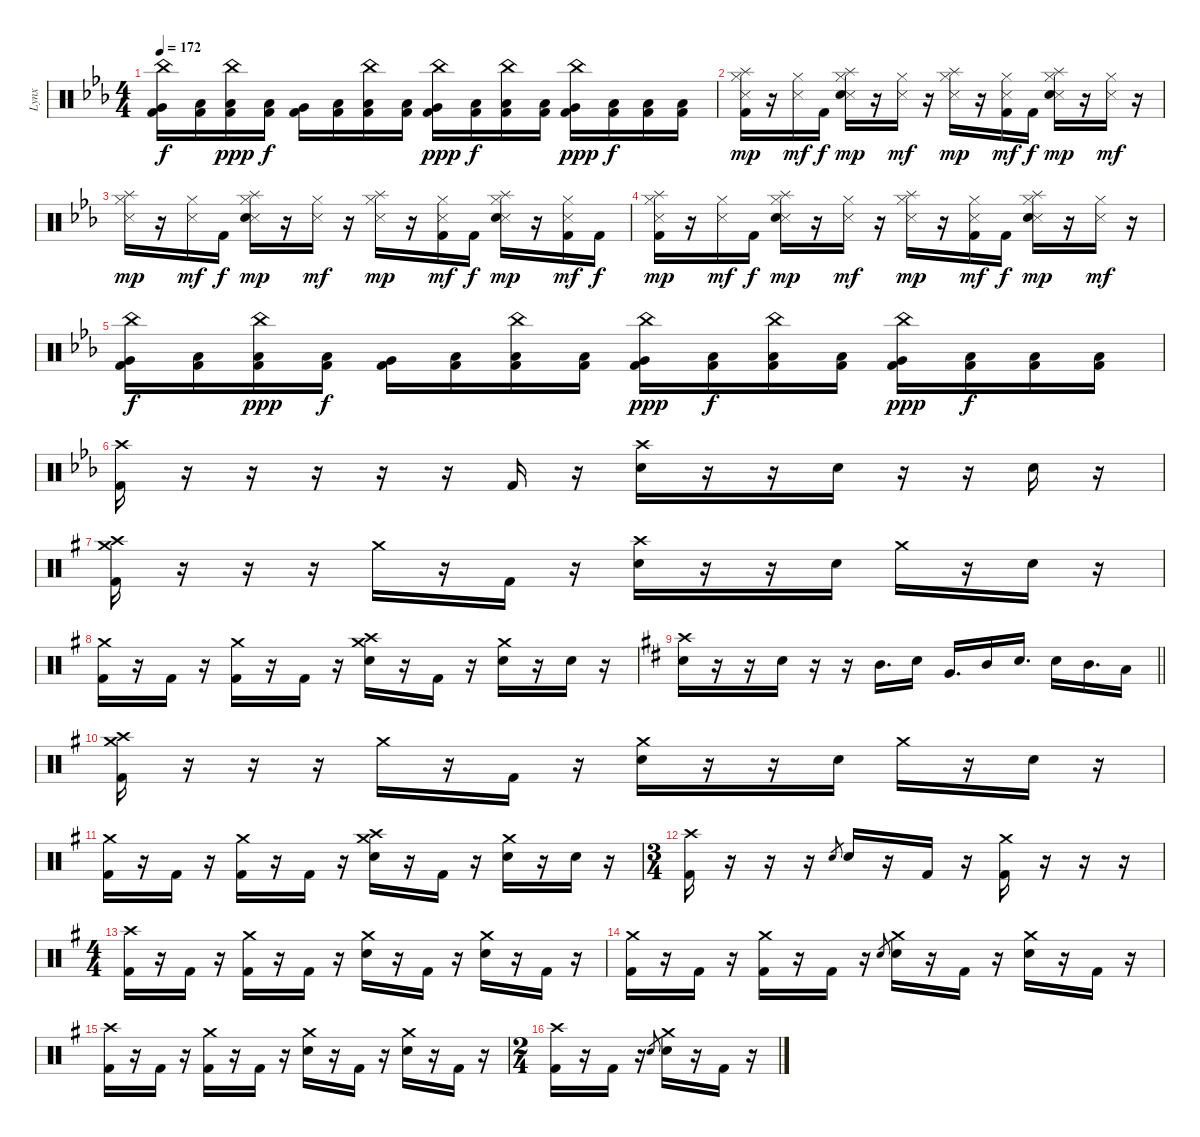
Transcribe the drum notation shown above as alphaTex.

\track ("Lynx" "Lynx") {instrument percussion}
\staff {score}
\articulation defaults
\ts (4 4)
\tempo 172
\clef neutral
\ks eb
("China (hit)" "Very Low Tom (hit)" "Kick (hit) 2").16{dy f} ("Low Floor Tom (hit)" "Kick (hit) 2").16 ("China (hit)" "Low Floor Tom (hit)" "Kick (hit) 2").16{dy ppp} ("Low Floor Tom (hit)" "Kick (hit) 2").16{dy f} ("Very Low Tom (hit)" "Kick (hit) 2").16 ("Low Floor Tom (hit)" "Kick (hit) 2").16 ("China (hit)" "Low Floor Tom (hit)" "Kick (hit) 2").16 ("Low Floor Tom (hit)" "Kick (hit) 2").16 ("China (hit)" "Very Low Tom (hit)" "Kick (hit) 2").16{dy ppp} ("Low Floor Tom (hit)" "Kick (hit) 2").16{dy f} ("China (hit)" "Low Floor Tom (hit)" "Kick (hit) 2").16 ("Low Floor Tom (hit)" "Kick (hit) 2").16 ("China (hit)" "Very Low Tom (hit)" "Kick (hit) 2").16{dy ppp} ("Low Floor Tom (hit)" "Kick (hit) 2").16{dy f} ("Low Floor Tom (hit)" "Kick (hit) 2").16 ("Low Floor Tom (hit)" "Kick (hit) 2").16 |
("Hi-Hat (closed)" "Snare (side stick) 3" "Splash (hit)" "Kick (hit) 2").16{dy mp} r.16 ("Hi-Hat (closed)" "Snare (side stick) 3").16{dy mf} "Kick (hit) 2".16{dy f} ("Hi-Hat (closed)" "Snare (side stick) 3" "Splash (hit)" "Electric Snare (hit)").16{dy mp} r.16 ("Hi-Hat (closed)" "Snare (side stick) 3").16{dy mf} r.16 ("Hi-Hat (closed)" "Snare (side stick) 3" "Splash (hit)").16{dy mp} r.16 ("Hi-Hat (closed)" "Snare (side stick) 3" "Kick (hit) 2").16{dy mf} "Kick (hit) 2".16{dy f} ("Hi-Hat (closed)" "Snare (side stick) 3" "Splash (hit)" "Electric Snare (hit)").16{dy mp} r.16 ("Hi-Hat (closed)" "Snare (side stick) 3").16{dy mf} r.16 |
("Hi-Hat (closed)" "Snare (side stick) 3" "Splash (hit)").16{dy mp} r.16 ("Hi-Hat (closed)" "Snare (side stick) 3").16{dy mf} "Kick (hit) 2".16{dy f} ("Hi-Hat (closed)" "Snare (side stick) 3" "Splash (hit)" "Electric Snare (hit)").16{dy mp} r.16 ("Hi-Hat (closed)" "Snare (side stick) 3").16{dy mf} r.16 ("Hi-Hat (closed)" "Snare (side stick) 3" "Splash (hit)").16{dy mp} r.16 ("Hi-Hat (closed)" "Snare (side stick) 3" "Kick (hit) 2").16{dy mf} "Kick (hit) 2".16{dy f} ("Hi-Hat (closed)" "Snare (side stick) 3" "Splash (hit)" "Electric Snare (hit)").16{dy mp} r.16 ("Hi-Hat (closed)" "Snare (side stick) 3" "Kick (hit) 2").16{dy mf} "Kick (hit) 2".16{dy f} |
("Hi-Hat (closed)" "Snare (side stick) 3" "Splash (hit)" "Kick (hit) 2").16{dy mp} r.16 ("Hi-Hat (closed)" "Snare (side stick) 3").16{dy mf} "Kick (hit) 2".16{dy f} ("Hi-Hat (closed)" "Snare (side stick) 3" "Splash (hit)" "Electric Snare (hit)").16{dy mp} r.16 ("Hi-Hat (closed)" "Snare (side stick) 3").16{dy mf} r.16 ("Hi-Hat (closed)" "Snare (side stick) 3" "Splash (hit)").16{dy mp} r.16 ("Hi-Hat (closed)" "Snare (side stick) 3" "Kick (hit) 2").16{dy mf} "Kick (hit) 2".16{dy f} ("Hi-Hat (closed)" "Snare (side stick) 3" "Splash (hit)" "Electric Snare (hit)").16{dy mp} r.16 ("Hi-Hat (closed)" "Snare (side stick) 3").16{dy mf} r.16 |
("China (hit)" "Very Low Tom (hit)" "Kick (hit) 2").16{dy f} ("Low Floor Tom (hit)" "Kick (hit) 2").16 ("China (hit)" "Low Floor Tom (hit)" "Kick (hit) 2").16{dy ppp} ("Low Floor Tom (hit)" "Kick (hit) 2").16{dy f} ("Very Low Tom (hit)" "Kick (hit) 2").16 ("Low Floor Tom (hit)" "Kick (hit) 2").16 ("China (hit)" "Low Floor Tom (hit)" "Kick (hit) 2").16 ("Low Floor Tom (hit)" "Kick (hit) 2").16 ("China (hit)" "Very Low Tom (hit)" "Kick (hit) 2").16{dy ppp} ("Low Floor Tom (hit)" "Kick (hit) 2").16{dy f} ("China (hit)" "Low Floor Tom (hit)" "Kick (hit) 2").16 ("Low Floor Tom (hit)" "Kick (hit) 2").16 ("China (hit)" "Very Low Tom (hit)" "Kick (hit) 2").16{dy ppp} ("Low Floor Tom (hit)" "Kick (hit) 2").16{dy f} ("Low Floor Tom (hit)" "Kick (hit) 2").16 ("Low Floor Tom (hit)" "Kick (hit) 2").16 |
("Crash high (hit)" "Kick (hit) 2").16 r.16 r.16 r.16 r.16 r.16 "Kick (hit) 2".16 r.16 ("Crash high (hit)" "Electric Snare (hit)").16 r.16 r.16 "Electric Snare (hit)".16 r.16 r.16 "Electric Snare (hit)".16 r.16 |
\ks g
("Crash high (hit)" "Crash medium (hit)" "Kick (hit) 2").16 r.16 r.16 r.16 "Crash medium (hit)".16 r.16 "Kick (hit) 2".16 r.16 ("Crash high (hit)" "Electric Snare (hit)").16 r.16 r.16 "Electric Snare (hit)".16 "Crash medium (hit)".16 r.16 "Electric Snare (hit)".16 r.16 |
("Crash medium (hit)" "Kick (hit) 2").16 r.16 "Kick (hit) 2".16 r.16 ("Crash medium (hit)" "Kick (hit) 2").16 r.16 "Kick (hit) 2".16 r.16 ("Crash medium (hit)" "Crash high (hit)" "Electric Snare (hit)").16 r.16 "Kick (hit) 2".16 r.16 ("Crash medium (hit)" "Electric Snare (hit)").16 r.16 "Electric Snare (hit)".16 r.16 |
\barLineRight lightlight
\ks d
("Crash high (hit)" "Electric Snare (hit)").16 r.16 r.16 "Electric Snare (hit)".16 r.16 r.16 "Mid Tom (hit)".16{d} "Electric Snare (hit)".16 "Very Low Tom (hit)".16{d} "Mid Tom (hit)".16 "Electric Snare (hit)".16{d} "Electric Snare (hit)".16 "Mid Tom (hit)".16{d} "Low Tom (hit)".16 |
\section ("" "")
\ks g
("Crash high (hit)" "Crash medium (hit)" "Kick (hit) 2").16 r.16 r.16 r.16 "Crash medium (hit)".16 r.16 "Kick (hit) 2".16 r.16 ("Crash medium (hit)" "Electric Snare (hit)").16 r.16 r.16 "Electric Snare (hit)".16 "Crash medium (hit)".16 r.16 "Electric Snare (hit)".16 r.16 |
("Crash medium (hit)" "Kick (hit) 2").16 r.16 "Kick (hit) 2".16 r.16 ("Crash medium (hit)" "Kick (hit) 2").16 r.16 "Kick (hit) 2".16 r.16 ("Crash medium (hit)" "Crash high (hit)" "Electric Snare (hit)").16 r.16 "Kick (hit) 2".16 r.16 ("Crash medium (hit)" "Electric Snare (hit)").16 r.16 "Electric Snare (hit)".16 r.16 |
\ts (3 4)
("Crash high (hit)" "Kick (hit) 2").16 r.16 r.16 r.16 "Electric Snare (hit)".8{gr} "Electric Snare (hit)".16 r.16 "Kick (hit) 2".16 r.16 ("Crash medium (hit)" "Kick (hit) 2").16 r.16 r.16 r.16 |
\ts (4 4)
("Crash high (hit)" "Kick (hit) 2").16 r.16 "Kick (hit) 2".16 r.16 ("Crash medium (hit)" "Kick (hit) 2").16 r.16 "Kick (hit) 2".16 r.16 ("Crash medium (hit)" "Electric Snare (hit)").16 r.16 "Kick (hit) 2".16 r.16 ("Crash medium (hit)" "Electric Snare (hit)").16 r.16 "Kick (hit) 2".16 r.16 |
("Crash medium (hit)" "Kick (hit) 2").16 r.16 "Kick (hit) 2".16 r.16 ("Crash medium (hit)" "Kick (hit) 2").16 r.16 "Kick (hit) 2".16 r.16 "Electric Snare (hit)".8{gr} ("Crash medium (hit)" "Electric Snare (hit)").16 r.16 "Kick (hit) 2".16 r.16 ("Crash medium (hit)" "Electric Snare (hit)").16 r.16 "Kick (hit) 2".16 r.16 |
("Crash high (hit)" "Kick (hit) 2").16 r.16 "Kick (hit) 2".16 r.16 ("Crash medium (hit)" "Kick (hit) 2").16 r.16 "Kick (hit) 2".16 r.16 ("Crash medium (hit)" "Electric Snare (hit)").16 r.16 "Kick (hit) 2".16 r.16 ("Crash medium (hit)" "Electric Snare (hit)").16 r.16 "Kick (hit) 2".16 r.16 |
\ts (2 4)
("Crash high (hit)" "Kick (hit) 2").16 r.16 "Kick (hit) 2".16 r.16 "Electric Snare (hit)".8{gr} ("Crash medium (hit)" "Electric Snare (hit)").16 r.16 "Kick (hit) 2".16 r.16
